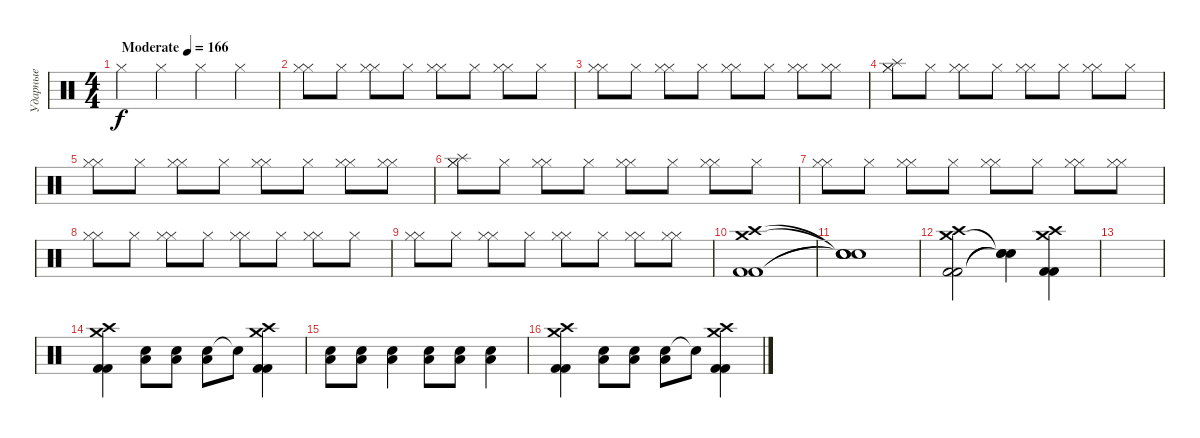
\track ("Ударные" "Ударные") {instrument percussion}
\staff {score}
\articulation defaults
\ts (4 4)
\tempo (166 "Moderate")
\clef neutral
\ks c "Hi-Hat (closed)".4{dy f} "Hi-Hat (closed)".4 "Hi-Hat (closed)".4 "Hi-Hat (closed)".4
|
("Hi-Hat (closed)" "Hi-Hat (closed)").8 "Hi-Hat (closed)".8 ("Hi-Hat (closed)" "Hi-Hat (closed)").8 "Hi-Hat (closed)".8 ("Hi-Hat (closed)" "Hi-Hat (closed)").8 "Hi-Hat (closed)".8 ("Hi-Hat (closed)" "Hi-Hat (closed)").8 "Hi-Hat (closed)".8 |
("Hi-Hat (closed)" "Hi-Hat (closed)").8 "Hi-Hat (closed)".8 ("Hi-Hat (closed)" "Hi-Hat (closed)").8 "Hi-Hat (closed)".8 ("Hi-Hat (closed)" "Hi-Hat (closed)").8 "Hi-Hat (closed)".8 ("Hi-Hat (closed)" "Hi-Hat (closed)").8 ("Hi-Hat (closed)" "Hi-Hat (closed)").8 |
("Hi-Hat (closed)" "Hi-Hat (closed)" "Splash (hit)").8 "Hi-Hat (closed)".8 ("Hi-Hat (closed)" "Hi-Hat (closed)").8 "Hi-Hat (closed)".8 ("Hi-Hat (closed)" "Hi-Hat (closed)").8 "Hi-Hat (closed)".8 ("Hi-Hat (closed)" "Hi-Hat (closed)").8 "Hi-Hat (closed)".8 |
("Hi-Hat (closed)" "Hi-Hat (closed)").8 "Hi-Hat (closed)".8 ("Hi-Hat (closed)" "Hi-Hat (closed)").8 "Hi-Hat (closed)".8 ("Hi-Hat (closed)" "Hi-Hat (closed)").8 "Hi-Hat (closed)".8 ("Hi-Hat (closed)" "Hi-Hat (closed)").8 ("Hi-Hat (closed)" "Hi-Hat (closed)").8 |
("Hi-Hat (closed)" "Hi-Hat (closed)" "Splash (hit)").8 "Hi-Hat (closed)".8 ("Hi-Hat (closed)" "Hi-Hat (closed)").8 "Hi-Hat (closed)".8 ("Hi-Hat (closed)" "Hi-Hat (closed)").8 "Hi-Hat (closed)".8 ("Hi-Hat (closed)" "Hi-Hat (closed)").8 "Hi-Hat (closed)".8 |
("Hi-Hat (closed)" "Hi-Hat (closed)").8 "Hi-Hat (closed)".8 ("Hi-Hat (closed)" "Hi-Hat (closed)").8 "Hi-Hat (closed)".8 ("Hi-Hat (closed)" "Hi-Hat (closed)").8 "Hi-Hat (closed)".8 ("Hi-Hat (closed)" "Hi-Hat (closed)").8 ("Hi-Hat (closed)" "Hi-Hat (closed)").8 |
("Hi-Hat (closed)" "Hi-Hat (closed)").8 "Hi-Hat (closed)".8 ("Hi-Hat (closed)" "Hi-Hat (closed)").8 "Hi-Hat (closed)".8 ("Hi-Hat (closed)" "Hi-Hat (closed)").8 "Hi-Hat (closed)".8 ("Hi-Hat (closed)" "Hi-Hat (closed)").8 "Hi-Hat (closed)".8 |
("Hi-Hat (closed)" "Hi-Hat (closed)").8 "Hi-Hat (closed)".8 ("Hi-Hat (closed)" "Hi-Hat (closed)").8 "Hi-Hat (closed)".8 ("Hi-Hat (closed)" "Hi-Hat (closed)").8 "Hi-Hat (closed)".8 ("Hi-Hat (closed)" "Hi-Hat (closed)").8 ("Hi-Hat (closed)" "Hi-Hat (closed)").8 |
("Kick (hit) 2" "Kick (hit) 2" "Crash medium (hit)" "Crash high (hit)").1 |
("Snare (hit)"{t} "Snare (hit)"{t} "Snare (hit)"{t} "Snare (hit)"{t}).1 |
("Kick (hit) 2" "Kick (hit) 2" "Crash medium (hit)" "Crash high (hit)").2 ("Snare (hit)"{t} "Snare (hit)"{t} "Snare (hit)"{t}).4 ("Kick (hit) 2" "Kick (hit) 2" "Crash high (hit)" "Crash medium (hit)").4 |
|
("Kick (hit) 2" "Kick (hit) 2" "Crash medium (hit)" "Crash high (hit)").4 ("Snare (hit) 2" "Low Floor Tom (hit)").8 ("Snare (hit) 2" "Low Floor Tom (hit)").8 ("Snare (hit) 2" "Low Floor Tom (hit)").8 "Snare (hit)"{t}.8 ("Kick (hit) 2" "Kick (hit) 2" "Crash medium (hit)" "Crash high (hit)").4 |
("Snare (hit) 2" "Low Floor Tom (hit)").8 ("Snare (hit) 2" "Low Floor Tom (hit)").8 ("Snare (hit) 2" "Low Floor Tom (hit)").4 ("Snare (hit) 2" "Low Floor Tom (hit)").8 ("Snare (hit) 2" "Low Floor Tom (hit)").8 ("Snare (hit) 2" "Low Floor Tom (hit)").4 |
("Kick (hit) 2" "Kick (hit) 2" "Crash medium (hit)" "Crash high (hit)").4 ("Snare (hit) 2" "Low Floor Tom (hit)").8 ("Snare (hit) 2" "Low Floor Tom (hit)").8 ("Snare (hit) 2" "Low Floor Tom (hit)").8 "Snare (hit)"{t}.8 ("Kick (hit) 2" "Kick (hit) 2" "Crash medium (hit)" "Crash high (hit)").4
